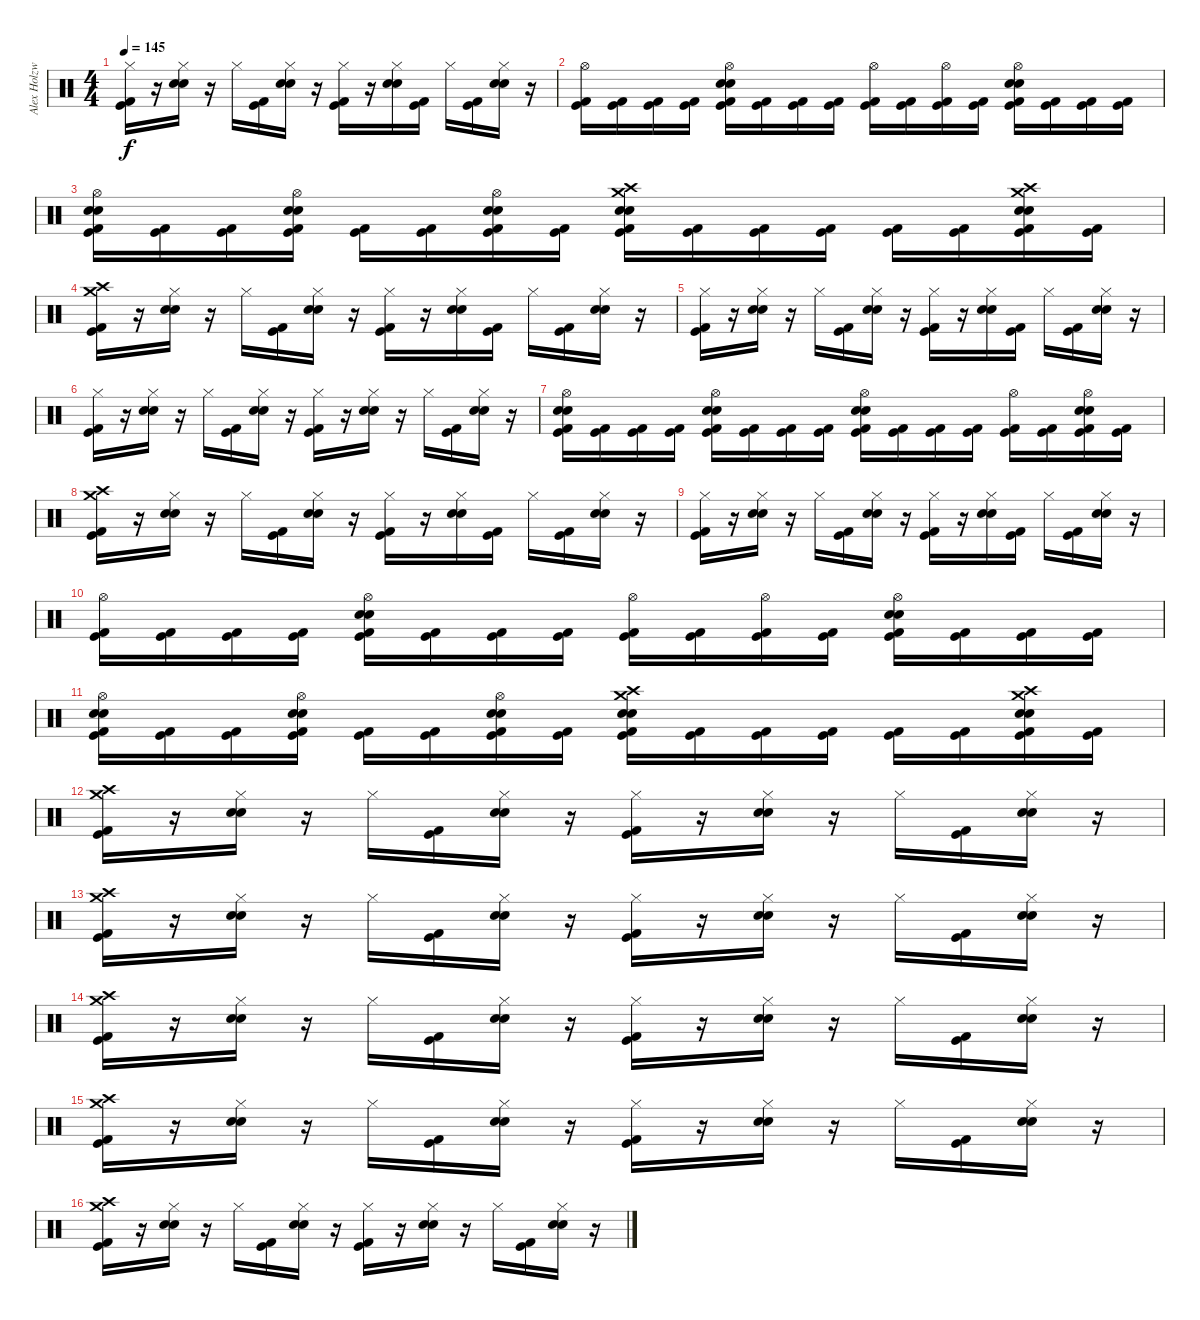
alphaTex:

\track ("Alex Holzwarth" "Alex Holzw") {instrument percussion}
\staff {score}
\articulation defaults
\ts (4 4)
\tempo 145
\clef neutral
\ks c
("Hi-Hat (closed)" "Kick (hit) 2" "Kick (hit)").16{dy f} r.16 ("Hi-Hat (closed)" "Electric Snare (hit)" "Snare (hit) 2").16 r.16 "Hi-Hat (closed)".16 ("Kick (hit) 2" "Kick (hit)").16 ("Electric Snare (hit)" "Snare (hit) 2" "Hi-Hat (closed)").16 r.16 ("Hi-Hat (closed)" "Kick (hit) 2" "Kick (hit)").16 r.16 ("Hi-Hat (closed)" "Electric Snare (hit)" "Snare (hit) 2").16 ("Kick (hit) 2" "Kick (hit)").16 "Hi-Hat (closed)".16 ("Kick (hit) 2" "Kick (hit)").16 ("Electric Snare (hit)" "Snare (hit) 2" "Hi-Hat (closed)").16 r.16 |
("Hi-Hat (open)" "Kick (hit) 2" "Kick (hit)").16 ("Kick (hit) 2" "Kick (hit)").16 ("Kick (hit) 2" "Kick (hit)").16 ("Kick (hit) 2" "Kick (hit)").16 ("Electric Snare (hit)" "Snare (hit) 2" "Hi-Hat (open)" "Kick (hit) 2" "Kick (hit)").16 ("Kick (hit) 2" "Kick (hit)").16 ("Kick (hit) 2" "Kick (hit)").16 ("Kick (hit) 2" "Kick (hit)").16 ("Hi-Hat (open)" "Kick (hit) 2" "Kick (hit)").16 ("Kick (hit) 2" "Kick (hit)").16 ("Hi-Hat (open)" "Kick (hit) 2" "Kick (hit)").16 ("Kick (hit) 2" "Kick (hit)").16 ("Electric Snare (hit)" "Snare (hit) 2" "Hi-Hat (open)" "Kick (hit) 2" "Kick (hit)").16 ("Kick (hit) 2" "Kick (hit)").16 ("Kick (hit) 2" "Kick (hit)").16 ("Kick (hit) 2" "Kick (hit)").16 |
("Hi-Hat (open)" "Electric Snare (hit)" "Snare (hit) 2" "Kick (hit) 2" "Kick (hit)").16 ("Kick (hit) 2" "Kick (hit)").16 ("Kick (hit) 2" "Kick (hit)").16 ("Hi-Hat (open)" "Electric Snare (hit)" "Snare (hit) 2" "Kick (hit) 2" "Kick (hit)").16 ("Kick (hit) 2" "Kick (hit)").16 ("Kick (hit) 2" "Kick (hit)").16 ("Hi-Hat (open)" "Electric Snare (hit)" "Snare (hit) 2" "Kick (hit) 2" "Kick (hit)").16 ("Kick (hit) 2" "Kick (hit)").16 ("Crash high (hit)" "Crash medium (hit)" "Electric Snare (hit)" "Snare (hit) 2" "Kick (hit) 2" "Kick (hit)").16 ("Kick (hit) 2" "Kick (hit)").16 ("Kick (hit) 2" "Kick (hit)").16 ("Kick (hit) 2" "Kick (hit)").16 ("Kick (hit) 2" "Kick (hit)").16 ("Kick (hit) 2" "Kick (hit)").16 ("Crash high (hit)" "Crash medium (hit)" "Electric Snare (hit)" "Snare (hit) 2" "Kick (hit) 2" "Kick (hit)").16 ("Kick (hit) 2" "Kick (hit)").16 |
("Crash medium (hit)" "Crash high (hit)" "Kick (hit) 2" "Kick (hit)").16 r.16 ("Hi-Hat (closed)" "Electric Snare (hit)" "Snare (hit) 2").16 r.16 "Hi-Hat (closed)".16 ("Kick (hit) 2" "Kick (hit)").16 ("Electric Snare (hit)" "Snare (hit) 2" "Hi-Hat (closed)").16 r.16 ("Hi-Hat (closed)" "Kick (hit) 2" "Kick (hit)").16 r.16 ("Hi-Hat (closed)" "Electric Snare (hit)" "Snare (hit) 2").16 ("Kick (hit) 2" "Kick (hit)").16 "Hi-Hat (closed)".16 ("Kick (hit) 2" "Kick (hit)").16 ("Electric Snare (hit)" "Snare (hit) 2" "Hi-Hat (closed)").16 r.16 |
("Hi-Hat (closed)" "Kick (hit) 2" "Kick (hit)").16 r.16 ("Hi-Hat (closed)" "Electric Snare (hit)" "Snare (hit) 2").16 r.16 "Hi-Hat (closed)".16 ("Kick (hit) 2" "Kick (hit)").16 ("Electric Snare (hit)" "Snare (hit) 2" "Hi-Hat (closed)").16 r.16 ("Hi-Hat (closed)" "Kick (hit) 2" "Kick (hit)").16 r.16 ("Hi-Hat (closed)" "Electric Snare (hit)" "Snare (hit) 2").16 ("Kick (hit) 2" "Kick (hit)").16 "Hi-Hat (closed)".16 ("Kick (hit) 2" "Kick (hit)").16 ("Electric Snare (hit)" "Snare (hit) 2" "Hi-Hat (closed)").16 r.16 |
("Hi-Hat (closed)" "Kick (hit) 2" "Kick (hit)").16 r.16 ("Hi-Hat (closed)" "Electric Snare (hit)" "Snare (hit) 2").16 r.16 "Hi-Hat (closed)".16 ("Kick (hit) 2" "Kick (hit)").16 ("Electric Snare (hit)" "Snare (hit) 2" "Hi-Hat (closed)").16 r.16 ("Hi-Hat (closed)" "Kick (hit) 2" "Kick (hit)").16 r.16 ("Hi-Hat (closed)" "Electric Snare (hit)" "Snare (hit) 2").16 r.16 "Hi-Hat (closed)".16 ("Kick (hit) 2" "Kick (hit)").16 ("Electric Snare (hit)" "Snare (hit) 2" "Hi-Hat (closed)").16 r.16 |
("Hi-Hat (open)" "Snare (hit) 2" "Electric Snare (hit)" "Kick (hit) 2" "Kick (hit)").16 ("Kick (hit) 2" "Kick (hit)").16 ("Kick (hit) 2" "Kick (hit)").16 ("Kick (hit) 2" "Kick (hit)").16 ("Hi-Hat (open)" "Electric Snare (hit)" "Snare (hit) 2" "Kick (hit) 2" "Kick (hit)").16 ("Kick (hit) 2" "Kick (hit)").16 ("Kick (hit) 2" "Kick (hit)").16 ("Kick (hit) 2" "Kick (hit)").16 ("Hi-Hat (open)" "Electric Snare (hit)" "Snare (hit) 2" "Kick (hit) 2" "Kick (hit)").16 ("Kick (hit) 2" "Kick (hit)").16 ("Kick (hit) 2" "Kick (hit)").16 ("Kick (hit) 2" "Kick (hit)").16 ("Hi-Hat (open)" "Kick (hit) 2" "Kick (hit)").16 ("Kick (hit) 2" "Kick (hit)").16 ("Hi-Hat (open)" "Electric Snare (hit)" "Snare (hit) 2" "Kick (hit) 2" "Kick (hit)").16 ("Kick (hit) 2" "Kick (hit)").16 |
("Crash medium (hit)" "Crash high (hit)" "Kick (hit) 2" "Kick (hit)").16 r.16 ("Hi-Hat (closed)" "Electric Snare (hit)" "Snare (hit) 2").16 r.16 "Hi-Hat (closed)".16 ("Kick (hit) 2" "Kick (hit)").16 ("Electric Snare (hit)" "Snare (hit) 2" "Hi-Hat (closed)").16 r.16 ("Hi-Hat (closed)" "Kick (hit) 2" "Kick (hit)").16 r.16 ("Hi-Hat (closed)" "Electric Snare (hit)" "Snare (hit) 2").16 ("Kick (hit) 2" "Kick (hit)").16 "Hi-Hat (closed)".16 ("Kick (hit) 2" "Kick (hit)").16 ("Electric Snare (hit)" "Snare (hit) 2" "Hi-Hat (closed)").16 r.16 |
("Hi-Hat (closed)" "Kick (hit) 2" "Kick (hit)").16 r.16 ("Hi-Hat (closed)" "Electric Snare (hit)" "Snare (hit) 2").16 r.16 "Hi-Hat (closed)".16 ("Kick (hit) 2" "Kick (hit)").16 ("Electric Snare (hit)" "Snare (hit) 2" "Hi-Hat (closed)").16 r.16 ("Hi-Hat (closed)" "Kick (hit) 2" "Kick (hit)").16 r.16 ("Hi-Hat (closed)" "Electric Snare (hit)" "Snare (hit) 2").16 ("Kick (hit) 2" "Kick (hit)").16 "Hi-Hat (closed)".16 ("Kick (hit) 2" "Kick (hit)").16 ("Electric Snare (hit)" "Snare (hit) 2" "Hi-Hat (closed)").16 r.16 |
("Hi-Hat (open)" "Kick (hit) 2" "Kick (hit)").16 ("Kick (hit) 2" "Kick (hit)").16 ("Kick (hit) 2" "Kick (hit)").16 ("Kick (hit) 2" "Kick (hit)").16 ("Electric Snare (hit)" "Snare (hit) 2" "Hi-Hat (open)" "Kick (hit) 2" "Kick (hit)").16 ("Kick (hit) 2" "Kick (hit)").16 ("Kick (hit) 2" "Kick (hit)").16 ("Kick (hit) 2" "Kick (hit)").16 ("Hi-Hat (open)" "Kick (hit) 2" "Kick (hit)").16 ("Kick (hit) 2" "Kick (hit)").16 ("Hi-Hat (open)" "Kick (hit) 2" "Kick (hit)").16 ("Kick (hit) 2" "Kick (hit)").16 ("Electric Snare (hit)" "Snare (hit) 2" "Hi-Hat (open)" "Kick (hit) 2" "Kick (hit)").16 ("Kick (hit) 2" "Kick (hit)").16 ("Kick (hit) 2" "Kick (hit)").16 ("Kick (hit) 2" "Kick (hit)").16 |
("Hi-Hat (open)" "Electric Snare (hit)" "Snare (hit) 2" "Kick (hit) 2" "Kick (hit)").16 ("Kick (hit) 2" "Kick (hit)").16 ("Kick (hit) 2" "Kick (hit)").16 ("Hi-Hat (open)" "Electric Snare (hit)" "Snare (hit) 2" "Kick (hit) 2" "Kick (hit)").16 ("Kick (hit) 2" "Kick (hit)").16 ("Kick (hit) 2" "Kick (hit)").16 ("Hi-Hat (open)" "Electric Snare (hit)" "Snare (hit) 2" "Kick (hit) 2" "Kick (hit)").16 ("Kick (hit) 2" "Kick (hit)").16 ("Crash high (hit)" "Crash medium (hit)" "Electric Snare (hit)" "Snare (hit) 2" "Kick (hit) 2" "Kick (hit)").16 ("Kick (hit) 2" "Kick (hit)").16 ("Kick (hit) 2" "Kick (hit)").16 ("Kick (hit) 2" "Kick (hit)").16 ("Kick (hit) 2" "Kick (hit)").16 ("Kick (hit) 2" "Kick (hit)").16 ("Crash high (hit)" "Crash medium (hit)" "Electric Snare (hit)" "Snare (hit) 2" "Kick (hit) 2" "Kick (hit)").16 ("Kick (hit) 2" "Kick (hit)").16 |
("Crash medium (hit)" "Crash high (hit)" "Kick (hit) 2" "Kick (hit)").16 r.16 ("Hi-Hat (closed)" "Electric Snare (hit)" "Snare (hit) 2").16 r.16 "Hi-Hat (closed)".16 ("Kick (hit) 2" "Kick (hit)").16 ("Electric Snare (hit)" "Snare (hit) 2" "Hi-Hat (closed)").16 r.16 ("Hi-Hat (closed)" "Kick (hit) 2" "Kick (hit)").16 r.16 ("Hi-Hat (closed)" "Electric Snare (hit)" "Snare (hit) 2").16 r.16 "Hi-Hat (closed)".16 ("Kick (hit) 2" "Kick (hit)").16 ("Electric Snare (hit)" "Snare (hit) 2" "Hi-Hat (closed)").16 r.16 |
("Crash medium (hit)" "Crash high (hit)" "Kick (hit) 2" "Kick (hit)").16 r.16 ("Hi-Hat (closed)" "Electric Snare (hit)" "Snare (hit) 2").16 r.16 "Hi-Hat (closed)".16 ("Kick (hit) 2" "Kick (hit)").16 ("Electric Snare (hit)" "Snare (hit) 2" "Hi-Hat (closed)").16 r.16 ("Hi-Hat (closed)" "Kick (hit) 2" "Kick (hit)").16 r.16 ("Hi-Hat (closed)" "Electric Snare (hit)" "Snare (hit) 2").16 r.16 "Hi-Hat (closed)".16 ("Kick (hit) 2" "Kick (hit)").16 ("Electric Snare (hit)" "Snare (hit) 2" "Hi-Hat (closed)").16 r.16 |
("Crash medium (hit)" "Crash high (hit)" "Kick (hit) 2" "Kick (hit)").16 r.16 ("Hi-Hat (closed)" "Electric Snare (hit)" "Snare (hit) 2").16 r.16 "Hi-Hat (closed)".16 ("Kick (hit) 2" "Kick (hit)").16 ("Electric Snare (hit)" "Snare (hit) 2" "Hi-Hat (closed)").16 r.16 ("Hi-Hat (closed)" "Kick (hit) 2" "Kick (hit)").16 r.16 ("Hi-Hat (closed)" "Electric Snare (hit)" "Snare (hit) 2").16 r.16 "Hi-Hat (closed)".16 ("Kick (hit) 2" "Kick (hit)").16 ("Electric Snare (hit)" "Snare (hit) 2" "Hi-Hat (closed)").16 r.16 |
("Crash medium (hit)" "Crash high (hit)" "Kick (hit) 2" "Kick (hit)").16 r.16 ("Hi-Hat (closed)" "Electric Snare (hit)" "Snare (hit) 2").16 r.16 "Hi-Hat (closed)".16 ("Kick (hit) 2" "Kick (hit)").16 ("Electric Snare (hit)" "Snare (hit) 2" "Hi-Hat (closed)").16 r.16 ("Hi-Hat (closed)" "Kick (hit) 2" "Kick (hit)").16 r.16 ("Hi-Hat (closed)" "Electric Snare (hit)" "Snare (hit) 2").16 r.16 "Hi-Hat (closed)".16 ("Kick (hit) 2" "Kick (hit)").16 ("Electric Snare (hit)" "Snare (hit) 2" "Hi-Hat (closed)").16 r.16 |
("Crash medium (hit)" "Crash high (hit)" "Kick (hit) 2" "Kick (hit)").16 r.16 ("Hi-Hat (closed)" "Electric Snare (hit)" "Snare (hit) 2").16 r.16 "Hi-Hat (closed)".16 ("Kick (hit) 2" "Kick (hit)").16 ("Electric Snare (hit)" "Snare (hit) 2" "Hi-Hat (closed)").16 r.16 ("Hi-Hat (closed)" "Kick (hit) 2" "Kick (hit)").16 r.16 ("Hi-Hat (closed)" "Electric Snare (hit)" "Snare (hit) 2").16 r.16 "Hi-Hat (closed)".16 ("Kick (hit) 2" "Kick (hit)").16 ("Electric Snare (hit)" "Snare (hit) 2" "Hi-Hat (closed)").16 r.16
